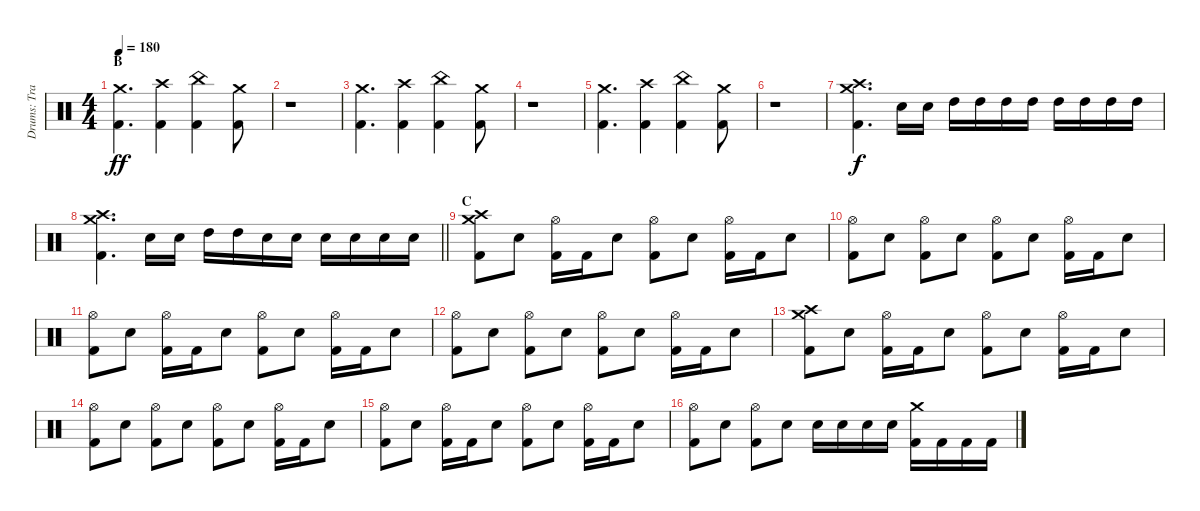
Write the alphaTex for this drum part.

\track ("Drums: Travis Clarke" "Drums: Tra") {instrument percussion}
\staff {score}
\articulation defaults
\ts (4 4)
\section ("" "B")
\tempo 180
\clef neutral
\ks c
("Kick (hit) 2" "Crash medium (hit)").4{d dy ff} ("Kick (hit) 2" "Crash high (hit)").4 ("Kick (hit) 2" "China (hit)").4 ("Kick (hit) 2" "Crash medium (hit)").8 |
r.1 |
("Kick (hit) 2" "Crash medium (hit)").4{d} ("Kick (hit) 2" "Crash high (hit)").4 ("Kick (hit) 2" "China (hit)").4 ("Kick (hit) 2" "Crash medium (hit)").8 |
r.1 |
("Kick (hit) 2" "Crash medium (hit)").4{d} ("Kick (hit) 2" "Crash high (hit)").4 ("Kick (hit) 2" "China (hit)").4 ("Kick (hit) 2" "Crash medium (hit)").8 |
r.1 |
("Kick (hit) 2" "Crash high (hit)" "Crash medium (hit)").4{d dy f} "Snare (hit) 2".16 "Snare (hit) 2".16 "High Tom (hit)".16 "High Tom (hit)".16 "High Tom (hit)".16 "High Tom (hit)".16 "High Tom (hit)".16 "High Tom (hit)".16 "High Tom (hit)".16 "High Tom (hit)".16 |
\barLineRight lightlight
("Kick (hit) 2" "Crash high (hit)" "Crash medium (hit)").4{d} "Snare (hit) 2".16 "Snare (hit) 2".16 "High Tom (hit)".16 "High Tom (hit)".16 "Snare (hit) 2".16 "Snare (hit) 2".16 "Snare (hit) 2".16 "Snare (hit) 2".16 "Snare (hit) 2".16 "Snare (hit) 2".16 |
\section ("" "C")
("Kick (hit) 2" "Crash high (hit)" "Crash medium (hit)").8 "Snare (hit) 2".8 ("Kick (hit) 2" "Hi-Hat (open)").16 "Kick (hit) 2".16 "Snare (hit) 2".8 ("Kick (hit) 2" "Hi-Hat (open)").8 "Snare (hit) 2".8 ("Kick (hit) 2" "Hi-Hat (open)").16 "Kick (hit) 2".16 "Snare (hit) 2".8 |
("Kick (hit) 2" "Hi-Hat (open)").8 "Snare (hit) 2".8 ("Kick (hit) 2" "Hi-Hat (open)").8 "Snare (hit) 2".8 ("Kick (hit) 2" "Hi-Hat (open)").8 "Snare (hit) 2".8 ("Kick (hit) 2" "Hi-Hat (open)").16 "Kick (hit) 2".16 "Snare (hit) 2".8 |
("Kick (hit) 2" "Hi-Hat (open)").8 "Snare (hit) 2".8 ("Kick (hit) 2" "Hi-Hat (open)").16 "Kick (hit) 2".16 "Snare (hit) 2".8 ("Kick (hit) 2" "Hi-Hat (open)").8 "Snare (hit) 2".8 ("Kick (hit) 2" "Hi-Hat (open)").16 "Kick (hit) 2".16 "Snare (hit) 2".8 |
("Kick (hit) 2" "Hi-Hat (open)").8 "Snare (hit) 2".8 ("Kick (hit) 2" "Hi-Hat (open)").8 "Snare (hit) 2".8 ("Kick (hit) 2" "Hi-Hat (open)").8 "Snare (hit) 2".8 ("Kick (hit) 2" "Hi-Hat (open)").16 "Kick (hit) 2".16 "Snare (hit) 2".8 |
("Kick (hit) 2" "Crash high (hit)" "Crash medium (hit)").8 "Snare (hit) 2".8 ("Kick (hit) 2" "Hi-Hat (open)").16 "Kick (hit) 2".16 "Snare (hit) 2".8 ("Kick (hit) 2" "Hi-Hat (open)").8 "Snare (hit) 2".8 ("Kick (hit) 2" "Hi-Hat (open)").16 "Kick (hit) 2".16 "Snare (hit) 2".8 |
("Kick (hit) 2" "Hi-Hat (open)").8 "Snare (hit) 2".8 ("Kick (hit) 2" "Hi-Hat (open)").8 "Snare (hit) 2".8 ("Kick (hit) 2" "Hi-Hat (open)").8 "Snare (hit) 2".8 ("Kick (hit) 2" "Hi-Hat (open)").16 "Kick (hit) 2".16 "Snare (hit) 2".8 |
("Kick (hit) 2" "Hi-Hat (open)").8 "Snare (hit) 2".8 ("Kick (hit) 2" "Hi-Hat (open)").16 "Kick (hit) 2".16 "Snare (hit) 2".8 ("Kick (hit) 2" "Hi-Hat (open)").8 "Snare (hit) 2".8 ("Kick (hit) 2" "Hi-Hat (open)").16 "Kick (hit) 2".16 "Snare (hit) 2".8 |
("Kick (hit) 2" "Hi-Hat (open)").8 "Snare (hit) 2".8 ("Kick (hit) 2" "Hi-Hat (open)").8 "Snare (hit) 2".8 "Snare (hit) 2".16 "Snare (hit) 2".16 "Snare (hit) 2".16 "Snare (hit) 2".16 ("Kick (hit) 2" "Crash medium (hit)").16 "Kick (hit) 2".16 "Kick (hit) 2".16 "Kick (hit) 2".16
